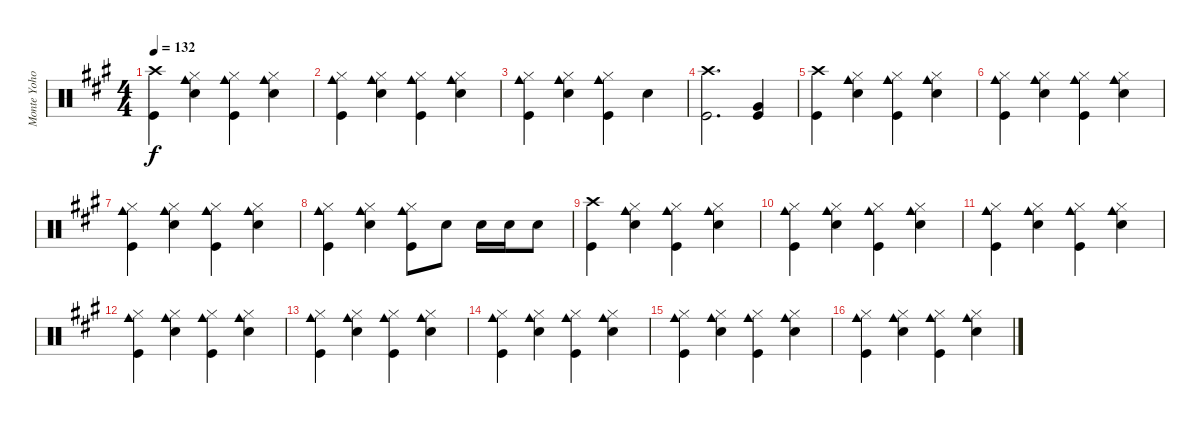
\track ("Monte Yoho Drums" "Monte Yoho") {instrument percussion}
\staff {score}
\articulation defaults
\ts (4 4)
\tempo 132
\clef neutral
\ks a
("Crash high (hit)" "Kick (hit)").4{dy f} ("Hi-Hat (closed)" "Cowbell medium (hit)" "Snare (hit) 2").4 ("Hi-Hat (closed)" "Cowbell medium (hit)" "Kick (hit)").4 ("Hi-Hat (closed)" "Cowbell medium (hit)" "Snare (hit) 2").4 |
("Hi-Hat (closed)" "Cowbell medium (hit)" "Kick (hit)").4 ("Hi-Hat (closed)" "Cowbell medium (hit)" "Snare (hit) 2").4 ("Hi-Hat (closed)" "Cowbell medium (hit)" "Kick (hit)").4 ("Hi-Hat (closed)" "Cowbell medium (hit)" "Snare (hit) 2").4 |
("Hi-Hat (closed)" "Cowbell medium (hit)" "Kick (hit)").4 ("Hi-Hat (closed)" "Cowbell medium (hit)" "Snare (hit) 2").4 ("Hi-Hat (closed)" "Cowbell medium (hit)" "Kick (hit)").4 "Snare (hit) 2".4 |
("Crash high (hit)" "Kick (hit)").2{d} ("Very Low Tom (hit)" "Kick (hit)").4 |
("Crash high (hit)" "Kick (hit)").4 ("Hi-Hat (closed)" "Cowbell medium (hit)" "Snare (hit) 2").4 ("Hi-Hat (closed)" "Cowbell medium (hit)" "Kick (hit)").4 ("Hi-Hat (closed)" "Cowbell medium (hit)" "Snare (hit) 2").4 |
("Hi-Hat (closed)" "Cowbell medium (hit)" "Kick (hit)").4 ("Hi-Hat (closed)" "Cowbell medium (hit)" "Snare (hit) 2").4 ("Hi-Hat (closed)" "Cowbell medium (hit)" "Kick (hit)").4 ("Hi-Hat (closed)" "Cowbell medium (hit)" "Snare (hit) 2").4 |
("Hi-Hat (closed)" "Cowbell medium (hit)" "Kick (hit)").4 ("Hi-Hat (closed)" "Cowbell medium (hit)" "Snare (hit) 2").4 ("Hi-Hat (closed)" "Cowbell medium (hit)" "Kick (hit)").4 ("Hi-Hat (closed)" "Cowbell medium (hit)" "Snare (hit) 2").4 |
("Hi-Hat (closed)" "Cowbell medium (hit)" "Kick (hit)").4 ("Hi-Hat (closed)" "Cowbell medium (hit)" "Snare (hit) 2").4 ("Hi-Hat (closed)" "Cowbell medium (hit)" "Kick (hit)").8 "Snare (hit) 2".8 "Snare (hit) 2".16 "Snare (hit) 2".16 "Snare (hit) 2".8 |
("Crash high (hit)" "Kick (hit)").4 ("Hi-Hat (closed)" "Cowbell medium (hit)" "Snare (hit) 2").4 ("Hi-Hat (closed)" "Cowbell medium (hit)" "Kick (hit)").4 ("Hi-Hat (closed)" "Cowbell medium (hit)" "Snare (hit) 2").4 |
("Hi-Hat (closed)" "Cowbell medium (hit)" "Kick (hit)").4 ("Hi-Hat (closed)" "Cowbell medium (hit)" "Snare (hit) 2").4 ("Hi-Hat (closed)" "Cowbell medium (hit)" "Kick (hit)").4 ("Hi-Hat (closed)" "Cowbell medium (hit)" "Snare (hit) 2").4 |
("Hi-Hat (closed)" "Cowbell medium (hit)" "Kick (hit)").4 ("Hi-Hat (closed)" "Cowbell medium (hit)" "Snare (hit) 2").4 ("Hi-Hat (closed)" "Cowbell medium (hit)" "Kick (hit)").4 ("Hi-Hat (closed)" "Cowbell medium (hit)" "Snare (hit) 2").4 |
("Hi-Hat (closed)" "Cowbell medium (hit)" "Kick (hit)").4 ("Hi-Hat (closed)" "Cowbell medium (hit)" "Snare (hit) 2").4 ("Hi-Hat (closed)" "Cowbell medium (hit)" "Kick (hit)").4 ("Hi-Hat (closed)" "Cowbell medium (hit)" "Snare (hit) 2").4 |
("Hi-Hat (closed)" "Cowbell medium (hit)" "Kick (hit)").4 ("Hi-Hat (closed)" "Cowbell medium (hit)" "Snare (hit) 2").4 ("Hi-Hat (closed)" "Cowbell medium (hit)" "Kick (hit)").4 ("Hi-Hat (closed)" "Cowbell medium (hit)" "Snare (hit) 2").4 |
("Hi-Hat (closed)" "Cowbell medium (hit)" "Kick (hit)").4 ("Hi-Hat (closed)" "Cowbell medium (hit)" "Snare (hit) 2").4 ("Hi-Hat (closed)" "Cowbell medium (hit)" "Kick (hit)").4 ("Hi-Hat (closed)" "Cowbell medium (hit)" "Snare (hit) 2").4 |
("Hi-Hat (closed)" "Cowbell medium (hit)" "Kick (hit)").4 ("Hi-Hat (closed)" "Cowbell medium (hit)" "Snare (hit) 2").4 ("Hi-Hat (closed)" "Cowbell medium (hit)" "Kick (hit)").4 ("Hi-Hat (closed)" "Cowbell medium (hit)" "Snare (hit) 2").4 |
("Hi-Hat (closed)" "Cowbell medium (hit)" "Kick (hit)").4 ("Hi-Hat (closed)" "Cowbell medium (hit)" "Snare (hit) 2").4 ("Hi-Hat (closed)" "Cowbell medium (hit)" "Kick (hit)").4 ("Hi-Hat (closed)" "Cowbell medium (hit)" "Snare (hit) 2").4
